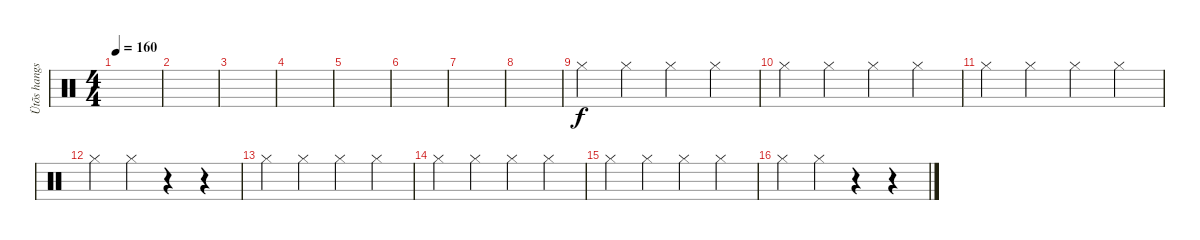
\track ("Ütõs hangszer" "Ütõs hangs") {instrument percussion}
\staff {score}
\articulation defaults
\ts (4 4)
\tempo 160
\clef neutral
\ks c
|
|
|
|
|
|
|
|
"Hi-Hat (closed)".4 "Hi-Hat (closed)".4 "Hi-Hat (closed)".4 "Hi-Hat (closed)".4 |
"Hi-Hat (closed)".4 "Hi-Hat (closed)".4 "Hi-Hat (closed)".4 "Hi-Hat (closed)".4 |
"Hi-Hat (closed)".4 "Hi-Hat (closed)".4 "Hi-Hat (closed)".4 "Hi-Hat (closed)".4 |
"Hi-Hat (closed)".4 "Hi-Hat (closed)".4 r.4 r.4 |
"Hi-Hat (closed)".4 "Hi-Hat (closed)".4 "Hi-Hat (closed)".4 "Hi-Hat (closed)".4 |
"Hi-Hat (closed)".4 "Hi-Hat (closed)".4 "Hi-Hat (closed)".4 "Hi-Hat (closed)".4 |
"Hi-Hat (closed)".4 "Hi-Hat (closed)".4 "Hi-Hat (closed)".4 "Hi-Hat (closed)".4 |
"Hi-Hat (closed)".4 "Hi-Hat (closed)".4 r.4 r.4
